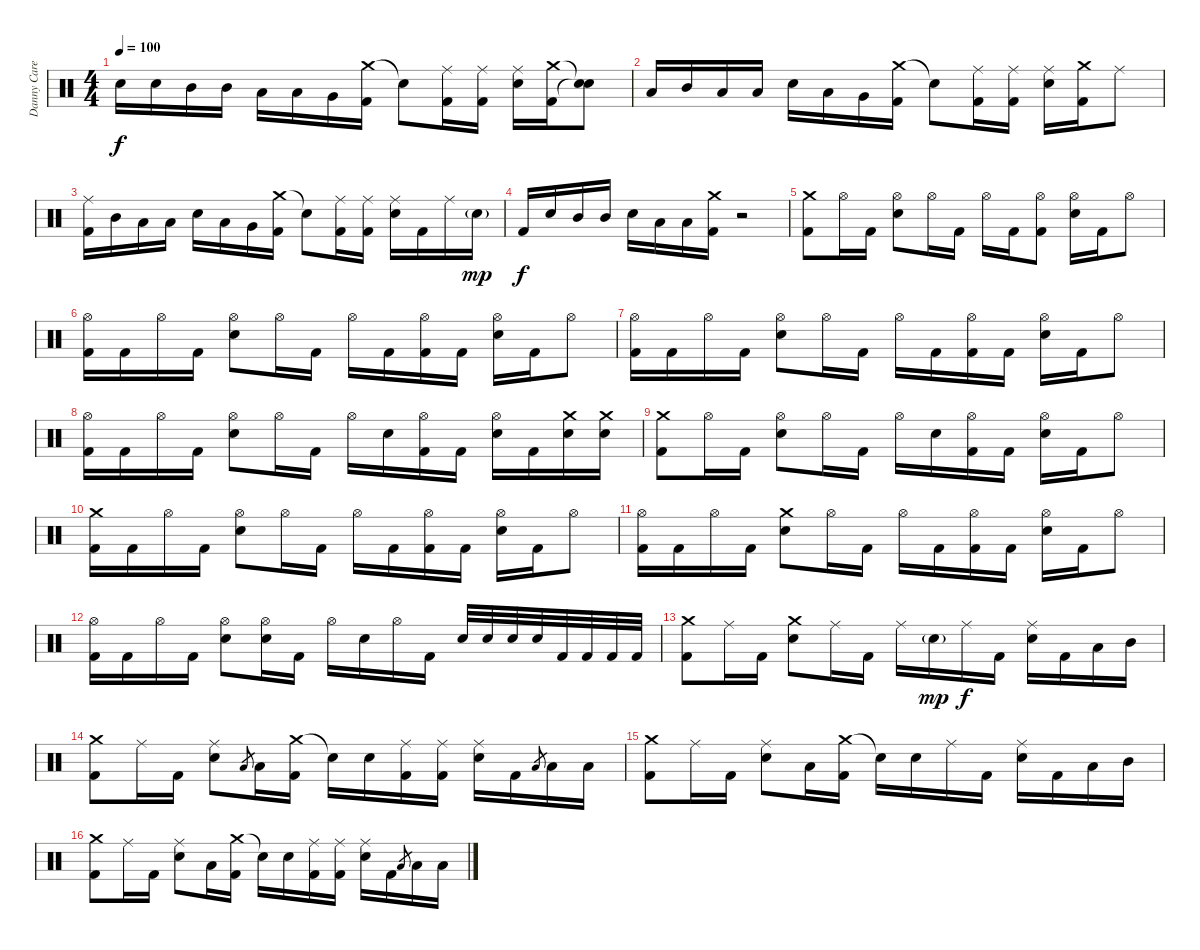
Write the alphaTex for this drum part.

\track ("Danny Carey" "Danny Care") {instrument percussion}
\staff {score}
\articulation defaults
\ts (4 4)
\tempo 100
\clef neutral
\ks c "Snare (hit) 2".16{dy f} "Snare (hit) 2".16 "Mid Tom (hit)".16 "Mid Tom (hit)".16 "Low Tom (hit)".16 "Low Tom (hit)".16 "Very Low Tom (hit)".16
("Crash medium (hit)" "Kick (hit) 2").16 "Snare (hit)"{t}.8 ("Ride (middle)" "Kick (hit) 2").16 ("Ride (middle)" "Kick (hit) 2").16 ("Ride (middle)" "Snare (hit) 2").16 ("Crash medium (hit)" "Kick (hit) 2").16 ("Snare (hit)"{t} "Snare (hit)"{t}).8 |
"Low Tom (hit)".16 "Mid Tom (hit)".16 "Low Tom (hit)".16 "Low Tom (hit)".16 "Snare (hit) 2".16 "Low Tom (hit)".16 "Very Low Tom (hit)".16 ("Crash medium (hit)" "Kick (hit) 2").16 "Snare (hit)"{t}.8 ("Ride (middle)" "Kick (hit) 2").16 ("Ride (middle)" "Kick (hit) 2").16 ("Ride (middle)" "Snare (hit) 2").16 ("Crash medium (hit)" "Kick (hit) 2").16 "Ride (middle)".8 |
("Ride (middle)" "Kick (hit) 2").16 "Mid Tom (hit)".16 "Low Tom (hit)".16 "Low Tom (hit)".16 "Snare (hit) 2".16 "Low Tom (hit)".16 "Very Low Tom (hit)".16 ("Crash medium (hit)" "Kick (hit) 2").16 "Snare (hit)"{t}.8 ("Ride (middle)" "Kick (hit) 2").16 ("Ride (middle)" "Kick (hit) 2").16 ("Ride (middle)" "Snare (hit) 2").16 "Kick (hit) 2".16 "Ride (middle)".16 "Snare (hit) 2"{g}.16{dy mp} |
"Kick (hit) 2".16{dy f} "Snare (hit) 2".16 "Mid Tom (hit)".16 "Mid Tom (hit)".16 "Snare (hit) 2".16 "Low Tom (hit)".16 "Low Tom (hit)".16 ("Crash medium (hit)" "Kick (hit) 2").16 r.2 |
("Crash medium (hit)" "Kick (hit) 2").8 "Hi-Hat (open)".16 "Kick (hit) 2".16 ("Hi-Hat (open)" "Snare (hit) 2").8 "Hi-Hat (open)".16 "Kick (hit) 2".16 "Hi-Hat (open)".16 "Kick (hit) 2".16 ("Hi-Hat (open)" "Kick (hit) 2").8 ("Hi-Hat (open)" "Snare (hit) 2").16 "Kick (hit) 2".16 "Hi-Hat (open)".8 |
("Hi-Hat (open)" "Kick (hit) 2").16 "Kick (hit) 2".16 "Hi-Hat (open)".16 "Kick (hit) 2".16 ("Hi-Hat (open)" "Snare (hit) 2").8 "Hi-Hat (open)".16 "Kick (hit) 2".16 "Hi-Hat (open)".16 "Kick (hit) 2".16 ("Hi-Hat (open)" "Kick (hit) 2").16 "Kick (hit) 2".16 ("Hi-Hat (open)" "Snare (hit) 2").16 "Kick (hit) 2".16 "Hi-Hat (open)".8 |
("Hi-Hat (open)" "Kick (hit) 2").16 "Kick (hit) 2".16 "Hi-Hat (open)".16 "Kick (hit) 2".16 ("Hi-Hat (open)" "Snare (hit) 2").8 "Hi-Hat (open)".16 "Kick (hit) 2".16 "Hi-Hat (open)".16 "Kick (hit) 2".16 ("Hi-Hat (open)" "Kick (hit) 2").16 "Kick (hit) 2".16 ("Hi-Hat (open)" "Snare (hit) 2").16 "Kick (hit) 2".16 "Hi-Hat (open)".8 |
("Hi-Hat (open)" "Kick (hit) 2").16 "Kick (hit) 2".16 "Hi-Hat (open)".16 "Kick (hit) 2".16 ("Hi-Hat (open)" "Snare (hit) 2").8 "Hi-Hat (open)".16 "Kick (hit) 2".16 "Hi-Hat (open)".16 "Snare (hit) 2".16 ("Hi-Hat (open)" "Kick (hit) 2").16 "Kick (hit) 2".16 ("Hi-Hat (open)" "Snare (hit) 2").16 "Kick (hit) 2".16 ("Crash medium (hit)" "Snare (hit) 2").16 ("Crash medium (hit)" "Snare (hit) 2").16 |
("Crash medium (hit)" "Kick (hit) 2").8 "Hi-Hat (open)".16 "Kick (hit) 2".16 ("Hi-Hat (open)" "Snare (hit) 2").8 "Hi-Hat (open)".16 "Kick (hit) 2".16 "Hi-Hat (open)".16 "Snare (hit) 2".16 ("Hi-Hat (open)" "Kick (hit) 2").16 "Kick (hit) 2".16 ("Hi-Hat (open)" "Snare (hit) 2").16 "Kick (hit) 2".16 "Hi-Hat (open)".8 |
("Crash medium (hit)" "Kick (hit) 2").16 "Kick (hit) 2".16 "Hi-Hat (open)".16 "Kick (hit) 2".16 ("Hi-Hat (open)" "Snare (hit) 2").8 "Hi-Hat (open)".16 "Kick (hit) 2".16 "Hi-Hat (open)".16 "Kick (hit) 2".16 ("Hi-Hat (open)" "Kick (hit) 2").16 "Kick (hit) 2".16 ("Hi-Hat (open)" "Snare (hit) 2").16 "Kick (hit) 2".16 "Hi-Hat (open)".8 |
("Hi-Hat (open)" "Kick (hit) 2").16 "Kick (hit) 2".16 "Hi-Hat (open)".16 "Kick (hit) 2".16 ("Crash medium (hit)" "Snare (hit) 2").8 "Hi-Hat (open)".16 "Kick (hit) 2".16 "Hi-Hat (open)".16 "Kick (hit) 2".16 ("Hi-Hat (open)" "Kick (hit) 2").16 "Kick (hit) 2".16 ("Hi-Hat (open)" "Snare (hit) 2").16 "Kick (hit) 2".16 "Hi-Hat (open)".8 |
("Hi-Hat (open)" "Kick (hit) 2").16 "Kick (hit) 2".16 "Hi-Hat (open)".16 "Kick (hit) 2".16 ("Hi-Hat (open)" "Snare (hit) 2").8 ("Hi-Hat (open)" "Snare (hit) 2").16 "Kick (hit) 2".16 "Hi-Hat (open)".16 "Snare (hit) 2".16 "Hi-Hat (open)".16 "Kick (hit) 2".16 "Snare (hit) 2".32 "Snare (hit) 2".32 "Snare (hit) 2".32 "Snare (hit) 2".32 "Kick (hit) 2".32 "Kick (hit) 2".32 "Kick (hit) 2".32 "Kick (hit) 2".32 |
("Crash medium (hit)" "Kick (hit) 2").8 "Ride (middle)".16 "Kick (hit) 2".16 ("Crash medium (hit)" "Snare (hit) 2").8 "Ride (middle)".16 "Kick (hit) 2".16 "Ride (middle)".16 "Snare (hit) 2"{g}.16{dy mp} "Ride (middle)".16{dy f} "Kick (hit) 2".16 ("Ride (middle)" "Snare (hit) 2").16 "Kick (hit) 2".16 "Low Tom (hit)".16 "Mid Tom (hit)".16 |
("Crash medium (hit)" "Kick (hit) 2").8 "Ride (middle)".16 "Kick (hit) 2".16 ("Ride (middle)" "Snare (hit) 2").8 "Low Tom (hit)".8{gr} "Low Tom (hit)".16 ("Crash medium (hit)" "Kick (hit) 2").16 "Snare (hit)"{t}.16 "Snare (hit) 2".16 ("Ride (middle)" "Kick (hit) 2").16 ("Ride (middle)" "Kick (hit) 2").16 ("Ride (middle)" "Snare (hit) 2").16 "Kick (hit) 2".16 "Low Tom (hit)".8{gr} "Low Tom (hit)".16 "Low Tom (hit)".16 |
("Crash medium (hit)" "Kick (hit) 2").8 "Ride (middle)".16 "Kick (hit) 2".16 ("Ride (middle)" "Snare (hit) 2").8 "Low Tom (hit)".16 ("Crash medium (hit)" "Kick (hit) 2").16 "Snare (hit)"{t}.16 "Snare (hit) 2".16 "Ride (middle)".16 "Kick (hit) 2".16 ("Ride (middle)" "Snare (hit) 2").16 "Kick (hit) 2".16 "Low Tom (hit)".16 "Mid Tom (hit)".16 |
("Crash medium (hit)" "Kick (hit) 2").8 "Ride (middle)".16 "Kick (hit) 2".16 ("Ride (middle)" "Snare (hit) 2").8 "Low Tom (hit)".16 ("Crash medium (hit)" "Kick (hit) 2").16 "Snare (hit)"{t}.16 "Snare (hit) 2".16 ("Ride (middle)" "Kick (hit) 2").16 ("Ride (middle)" "Kick (hit) 2").16 ("Ride (middle)" "Snare (hit) 2").16 "Kick (hit) 2".16 "Low Tom (hit)".8{gr} "Low Tom (hit)".16 "Low Tom (hit)".16
